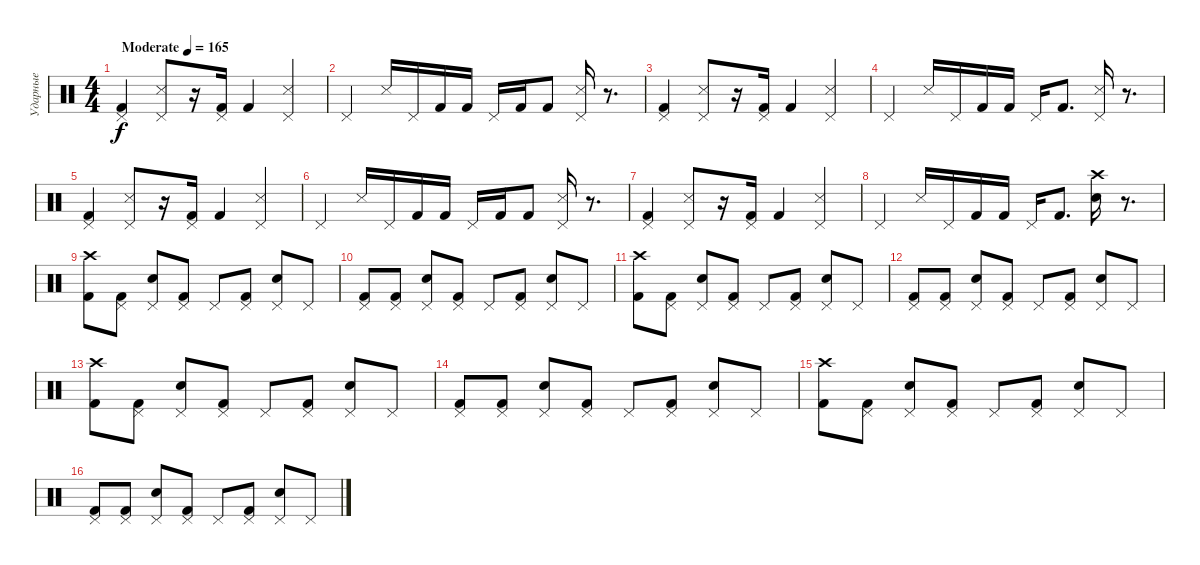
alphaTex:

\track ("Ударные" "Ударные") {instrument percussion}
\staff {score}
\articulation defaults
\ts (4 4)
\tempo (165 "Moderate")
\clef neutral
\ks c
("Pedal Hi-Hat (hit)" "Kick (hit) 2").4{dy f} ("Pedal Hi-Hat (hit)" "Snare (side stick) 3").8 r.16 ("Pedal Hi-Hat (hit)" "Kick (hit) 2").16 "Kick (hit) 2".4 ("Pedal Hi-Hat (hit)" "Snare (side stick) 3").4 |
"Pedal Hi-Hat (hit)".4 "Snare (side stick) 3".16 "Pedal Hi-Hat (hit)".16 "Kick (hit) 2".16 "Kick (hit) 2".16 "Pedal Hi-Hat (hit)".16 "Kick (hit) 2".16 "Kick (hit) 2".8 ("Pedal Hi-Hat (hit)" "Snare (side stick) 3").16 r.8{d} |
("Pedal Hi-Hat (hit)" "Kick (hit) 2").4 ("Pedal Hi-Hat (hit)" "Snare (side stick) 3").8 r.16 ("Pedal Hi-Hat (hit)" "Kick (hit) 2").16 "Kick (hit) 2".4 ("Pedal Hi-Hat (hit)" "Snare (side stick) 3").4 |
"Pedal Hi-Hat (hit)".4 "Snare (side stick) 3".16 "Pedal Hi-Hat (hit)".16 "Kick (hit) 2".16 "Kick (hit) 2".16 "Pedal Hi-Hat (hit)".16 "Kick (hit) 2".8{d} ("Pedal Hi-Hat (hit)" "Snare (side stick) 3").16 r.8{d} |
("Pedal Hi-Hat (hit)" "Kick (hit) 2").4 ("Pedal Hi-Hat (hit)" "Snare (side stick) 3").8 r.16 ("Pedal Hi-Hat (hit)" "Kick (hit) 2").16 "Kick (hit) 2".4 ("Pedal Hi-Hat (hit)" "Snare (side stick) 3").4 |
"Pedal Hi-Hat (hit)".4 "Snare (side stick) 3".16 "Pedal Hi-Hat (hit)".16 "Kick (hit) 2".16 "Kick (hit) 2".16 "Pedal Hi-Hat (hit)".16 "Kick (hit) 2".16 "Kick (hit) 2".8 ("Pedal Hi-Hat (hit)" "Snare (side stick) 3").16 r.8{d} |
("Pedal Hi-Hat (hit)" "Kick (hit) 2").4 ("Pedal Hi-Hat (hit)" "Snare (side stick) 3").8 r.16 ("Pedal Hi-Hat (hit)" "Kick (hit) 2").16 "Kick (hit) 2".4 ("Pedal Hi-Hat (hit)" "Snare (side stick) 3").4 |
"Pedal Hi-Hat (hit)".4 "Snare (side stick) 3".16 "Pedal Hi-Hat (hit)".16 "Kick (hit) 2".16 "Kick (hit) 2".16 "Pedal Hi-Hat (hit)".16 "Kick (hit) 2".8{d} ("Crash high (hit)" "Electric Snare (hit)").16 r.8{d} |
("Crash high (hit)" "Kick (hit) 2").8 ("Pedal Hi-Hat (hit)" "Kick (hit) 2").8 ("Pedal Hi-Hat (hit)" "Electric Snare (hit)").8 ("Pedal Hi-Hat (hit)" "Kick (hit) 2").8 "Pedal Hi-Hat (hit)".8 ("Pedal Hi-Hat (hit)" "Kick (hit) 2").8 ("Pedal Hi-Hat (hit)" "Electric Snare (hit)").8 "Pedal Hi-Hat (hit)".8 |
("Pedal Hi-Hat (hit)" "Kick (hit) 2").8 ("Pedal Hi-Hat (hit)" "Kick (hit) 2").8 ("Pedal Hi-Hat (hit)" "Electric Snare (hit)").8 ("Pedal Hi-Hat (hit)" "Kick (hit) 2").8 "Pedal Hi-Hat (hit)".8 ("Pedal Hi-Hat (hit)" "Kick (hit) 2").8 ("Pedal Hi-Hat (hit)" "Electric Snare (hit)").8 "Pedal Hi-Hat (hit)".8 |
("Crash high (hit)" "Kick (hit) 2").8 ("Pedal Hi-Hat (hit)" "Kick (hit) 2").8 ("Pedal Hi-Hat (hit)" "Electric Snare (hit)").8 ("Pedal Hi-Hat (hit)" "Kick (hit) 2").8 "Pedal Hi-Hat (hit)".8 ("Pedal Hi-Hat (hit)" "Kick (hit) 2").8 ("Pedal Hi-Hat (hit)" "Electric Snare (hit)").8 "Pedal Hi-Hat (hit)".8 |
("Pedal Hi-Hat (hit)" "Kick (hit) 2").8 ("Pedal Hi-Hat (hit)" "Kick (hit) 2").8 ("Pedal Hi-Hat (hit)" "Electric Snare (hit)").8 ("Pedal Hi-Hat (hit)" "Kick (hit) 2").8 "Pedal Hi-Hat (hit)".8 ("Pedal Hi-Hat (hit)" "Kick (hit) 2").8 ("Pedal Hi-Hat (hit)" "Electric Snare (hit)").8 "Pedal Hi-Hat (hit)".8 |
("Crash high (hit)" "Kick (hit) 2").8 ("Pedal Hi-Hat (hit)" "Kick (hit) 2").8 ("Pedal Hi-Hat (hit)" "Electric Snare (hit)").8 ("Pedal Hi-Hat (hit)" "Kick (hit) 2").8 "Pedal Hi-Hat (hit)".8 ("Pedal Hi-Hat (hit)" "Kick (hit) 2").8 ("Pedal Hi-Hat (hit)" "Electric Snare (hit)").8 "Pedal Hi-Hat (hit)".8 |
("Pedal Hi-Hat (hit)" "Kick (hit) 2").8 ("Pedal Hi-Hat (hit)" "Kick (hit) 2").8 ("Pedal Hi-Hat (hit)" "Electric Snare (hit)").8 ("Pedal Hi-Hat (hit)" "Kick (hit) 2").8 "Pedal Hi-Hat (hit)".8 ("Pedal Hi-Hat (hit)" "Kick (hit) 2").8 ("Pedal Hi-Hat (hit)" "Electric Snare (hit)").8 "Pedal Hi-Hat (hit)".8 |
("Crash high (hit)" "Kick (hit) 2").8 ("Pedal Hi-Hat (hit)" "Kick (hit) 2").8 ("Pedal Hi-Hat (hit)" "Electric Snare (hit)").8 ("Pedal Hi-Hat (hit)" "Kick (hit) 2").8 "Pedal Hi-Hat (hit)".8 ("Pedal Hi-Hat (hit)" "Kick (hit) 2").8 ("Pedal Hi-Hat (hit)" "Electric Snare (hit)").8 "Pedal Hi-Hat (hit)".8 |
("Pedal Hi-Hat (hit)" "Kick (hit) 2").8 ("Pedal Hi-Hat (hit)" "Kick (hit) 2").8 ("Pedal Hi-Hat (hit)" "Electric Snare (hit)").8 ("Pedal Hi-Hat (hit)" "Kick (hit) 2").8 "Pedal Hi-Hat (hit)".8 ("Pedal Hi-Hat (hit)" "Kick (hit) 2").8 ("Pedal Hi-Hat (hit)" "Electric Snare (hit)").8 "Pedal Hi-Hat (hit)".8
